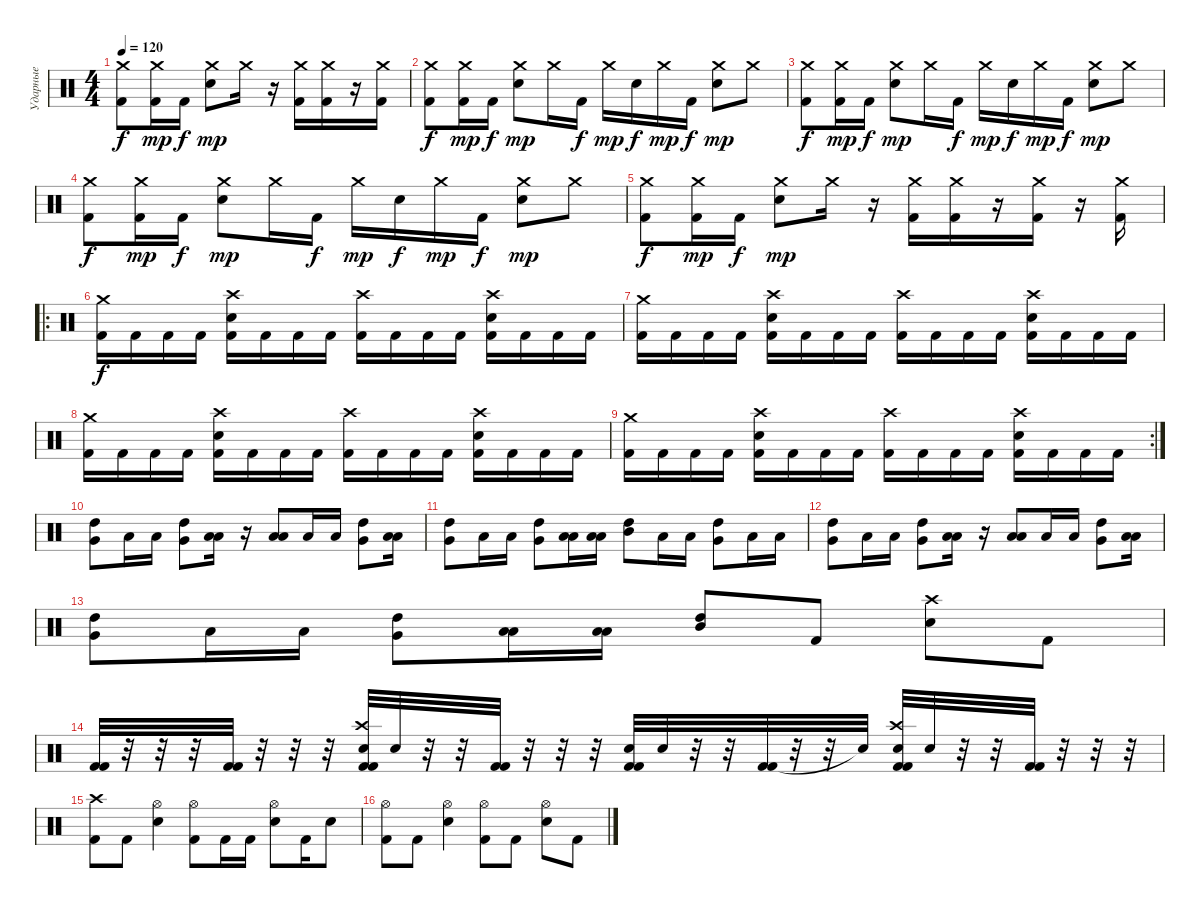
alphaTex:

\track ("Ударные" "Ударные") {instrument percussion}
\staff {score}
\articulation defaults
\ts (4 4)
\tempo 120
\clef neutral
\ks c
("Crash medium (hit)" "Kick (hit) 2").8{dy f} ("Crash medium (hit)" "Kick (hit) 2").16{dy mp} "Kick (hit) 2".16{dy f} ("Crash medium (hit)" "Electric Snare (hit)").8{dy mp} "Crash medium (hit)".16 r.16 ("Crash medium (hit)" "Kick (hit) 2").16 ("Crash medium (hit)" "Kick (hit) 2").16 r.16 ("Crash medium (hit)" "Kick (hit) 2").16 |
("Crash medium (hit)" "Kick (hit) 2").8{dy f} ("Crash medium (hit)" "Kick (hit) 2").16{dy mp} "Kick (hit) 2".16{dy f} ("Crash medium (hit)" "Electric Snare (hit)").8{dy mp} "Crash medium (hit)".16 "Kick (hit) 2".16{dy f} "Crash medium (hit)".16{dy mp} "Electric Snare (hit)".16{dy f} "Crash medium (hit)".16{dy mp} "Kick (hit) 2".16{dy f} ("Crash medium (hit)" "Electric Snare (hit)").8{dy mp} "Crash medium (hit)".8 |
("Crash medium (hit)" "Kick (hit) 2").8{dy f} ("Crash medium (hit)" "Kick (hit) 2").16{dy mp} "Kick (hit) 2".16{dy f} ("Crash medium (hit)" "Electric Snare (hit)").8{dy mp} "Crash medium (hit)".16 "Kick (hit) 2".16{dy f} "Crash medium (hit)".16{dy mp} "Electric Snare (hit)".16{dy f} "Crash medium (hit)".16{dy mp} "Kick (hit) 2".16{dy f} ("Crash medium (hit)" "Electric Snare (hit)").8{dy mp} "Crash medium (hit)".8 |
("Crash medium (hit)" "Kick (hit) 2").8{dy f} ("Crash medium (hit)" "Kick (hit) 2").16{dy mp} "Kick (hit) 2".16{dy f} ("Crash medium (hit)" "Electric Snare (hit)").8{dy mp} "Crash medium (hit)".16 "Kick (hit) 2".16{dy f} "Crash medium (hit)".16{dy mp} "Electric Snare (hit)".16{dy f} "Crash medium (hit)".16{dy mp} "Kick (hit) 2".16{dy f} ("Crash medium (hit)" "Electric Snare (hit)").8{dy mp} "Crash medium (hit)".8 |
("Crash medium (hit)" "Kick (hit) 2").8{dy f} ("Crash medium (hit)" "Kick (hit) 2").16{dy mp} "Kick (hit) 2".16{dy f} ("Crash medium (hit)" "Electric Snare (hit)").8{dy mp} "Crash medium (hit)".16 r.16 ("Crash medium (hit)" "Kick (hit) 2").16 ("Crash medium (hit)" "Kick (hit) 2").16 r.16 ("Crash medium (hit)" "Kick (hit) 2").16 r.16 ("Crash medium (hit)" "Kick (hit) 2").16 |
\ro
("Crash medium (hit)" "Kick (hit) 2").16{dy f} "Kick (hit) 2".16 "Kick (hit) 2".16 "Kick (hit) 2".16 ("Crash high (hit)" "Electric Snare (hit)" "Kick (hit) 2").16 "Kick (hit) 2".16 "Kick (hit) 2".16 "Kick (hit) 2".16 ("Crash high (hit)" "Kick (hit) 2").16 "Kick (hit) 2".16 "Kick (hit) 2".16 "Kick (hit) 2".16 ("Crash high (hit)" "Electric Snare (hit)" "Kick (hit) 2").16 "Kick (hit) 2".16 "Kick (hit) 2".16 "Kick (hit) 2".16 |
("Crash medium (hit)" "Kick (hit) 2").16 "Kick (hit) 2".16 "Kick (hit) 2".16 "Kick (hit) 2".16 ("Crash high (hit)" "Electric Snare (hit)" "Kick (hit) 2").16 "Kick (hit) 2".16 "Kick (hit) 2".16 "Kick (hit) 2".16 ("Crash high (hit)" "Kick (hit) 2").16 "Kick (hit) 2".16 "Kick (hit) 2".16 "Kick (hit) 2".16 ("Crash high (hit)" "Electric Snare (hit)" "Kick (hit) 2").16 "Kick (hit) 2".16 "Kick (hit) 2".16 "Kick (hit) 2".16 |
("Crash medium (hit)" "Kick (hit) 2").16 "Kick (hit) 2".16 "Kick (hit) 2".16 "Kick (hit) 2".16 ("Crash high (hit)" "Electric Snare (hit)" "Kick (hit) 2").16 "Kick (hit) 2".16 "Kick (hit) 2".16 "Kick (hit) 2".16 ("Crash high (hit)" "Kick (hit) 2").16 "Kick (hit) 2".16 "Kick (hit) 2".16 "Kick (hit) 2".16 ("Crash high (hit)" "Electric Snare (hit)" "Kick (hit) 2").16 "Kick (hit) 2".16 "Kick (hit) 2".16 "Kick (hit) 2".16 |
\rc 2
("Crash medium (hit)" "Kick (hit) 2").16 "Kick (hit) 2".16 "Kick (hit) 2".16 "Kick (hit) 2".16 ("Crash high (hit)" "Electric Snare (hit)" "Kick (hit) 2").16 "Kick (hit) 2".16 "Kick (hit) 2".16 "Kick (hit) 2".16 ("Crash high (hit)" "Kick (hit) 2").16 "Kick (hit) 2".16 "Kick (hit) 2".16 "Kick (hit) 2".16 ("Crash high (hit)" "Electric Snare (hit)" "Kick (hit) 2").16 "Kick (hit) 2".16 "Kick (hit) 2".16 "Kick (hit) 2".16 |
("High Tom (hit)" "Very Low Tom (hit)").8 "Low Tom (hit)".16 "Low Tom (hit)".16 ("High Tom (hit)" "Very Low Tom (hit)").8 ("Low Tom (hit)" "Low Floor Tom (hit)").16 r.16 ("Low Tom (hit)" "Low Floor Tom (hit)").8 "Low Tom (hit)".16 "Low Tom (hit)".16 ("High Tom (hit)" "Very Low Tom (hit)").8 ("Low Tom (hit)" "Low Floor Tom (hit)").16 |
("High Tom (hit)" "Very Low Tom (hit)").8 "Low Tom (hit)".16 "Low Tom (hit)".16 ("High Tom (hit)" "Very Low Tom (hit)").8 ("Low Tom (hit)" "Low Floor Tom (hit)").16 ("Low Tom (hit)" "Low Floor Tom (hit)").16 ("High Tom (hit)" "Mid Tom (hit)").8 "Low Tom (hit)".16 "Low Tom (hit)".16 ("High Tom (hit)" "Very Low Tom (hit)").8 "Low Tom (hit)".16 "Low Tom (hit)".16 |
("High Tom (hit)" "Very Low Tom (hit)").8 "Low Tom (hit)".16 "Low Tom (hit)".16 ("High Tom (hit)" "Very Low Tom (hit)").8 ("Low Tom (hit)" "Low Floor Tom (hit)").16 r.16 ("Low Tom (hit)" "Low Floor Tom (hit)").8 "Low Tom (hit)".16 "Low Tom (hit)".16 ("High Tom (hit)" "Very Low Tom (hit)").8 ("Low Tom (hit)" "Low Floor Tom (hit)").16 |
("High Tom (hit)" "Very Low Tom (hit)").8 "Low Tom (hit)".16 "Low Tom (hit)".16 ("High Tom (hit)" "Very Low Tom (hit)").8 ("Low Tom (hit)" "Low Floor Tom (hit)").16 ("Low Tom (hit)" "Low Floor Tom (hit)").16 ("High Tom (hit)" "Mid Tom (hit)").8 "Kick (hit) 2".8 ("Crash high (hit)" "Snare (hit) 2").8 "Kick (hit) 2".8 |
("Kick (hit) 2" "Kick (hit) 2").32 r.32 r.32 r.32 ("Kick (hit) 2" "Kick (hit) 2").32 r.32 r.32 r.32 ("Crash high (hit)" "Snare (hit) 2" "Kick (hit) 2" "Kick (hit) 2").32 "Snare (hit) 2".32 r.32 r.32 ("Kick (hit) 2" "Kick (hit) 2").32 r.32 r.32 r.32 ("Snare (hit) 2" "Kick (hit) 2" "Kick (hit) 2").32 "Snare (hit) 2".32 r.32 r.32 ("Kick (hit) 2" "Kick (hit) 2").32 r.32 r.32 "Snare (hit)"{t}.32 ("Crash high (hit)" "Snare (hit) 2" "Kick (hit) 2" "Kick (hit) 2").32 "Snare (hit) 2".32 r.32 r.32 ("Kick (hit) 2" "Kick (hit) 2").32 r.32 r.32 r.32 |
("Crash high (hit)" "Kick (hit) 2").8 "Kick (hit) 2".8 ("Hi-Hat (open)" "Electric Snare (hit)").4 ("Hi-Hat (open)" "Kick (hit) 2").8 "Kick (hit) 2".16 "Kick (hit) 2".16 ("Hi-Hat (open)" "Electric Snare (hit)").8 "Kick (hit) 2".16 "Electric Snare (hit)".8 |
("Hi-Hat (open)" "Kick (hit) 2").8 "Kick (hit) 2".8 ("Hi-Hat (open)" "Electric Snare (hit)").4 ("Hi-Hat (open)" "Kick (hit) 2").8 "Kick (hit) 2".8 ("Hi-Hat (open)" "Electric Snare (hit)").8 "Kick (hit) 2".8
